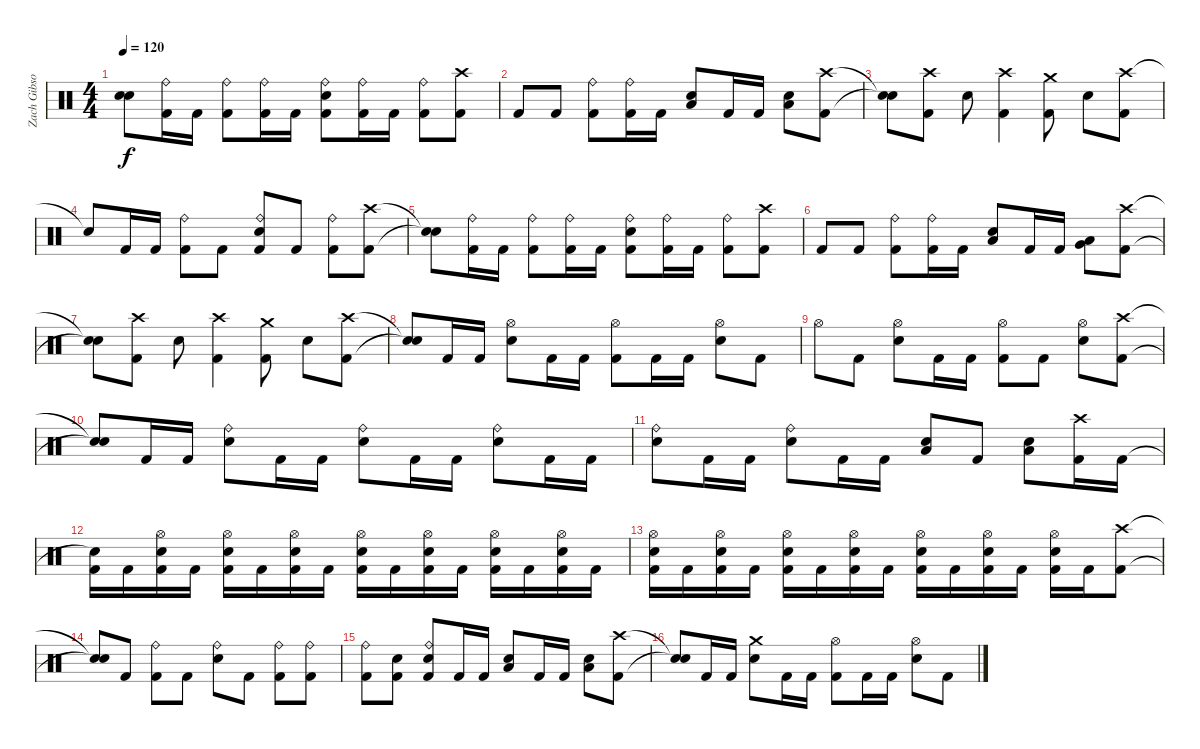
\track ("Zach Gibson (Drums)" "Zach Gibso") {instrument percussion}
\staff {score}
\articulation defaults
\ts (4 4)
\tempo 120
\clef neutral
\ks c
("Snare (hit)"{t} "Snare (hit)"{t}).8{dy f} ("Ride (bell)" "Kick (hit) 2").16 "Kick (hit) 2".16 ("Ride (bell)" "Kick (hit) 2").8 ("Ride (bell)" "Kick (hit) 2").16 "Kick (hit) 2".16 ("Snare (hit) 2" "Ride (bell)" "Kick (hit) 2").8 ("Ride (bell)" "Kick (hit) 2").16 "Kick (hit) 2".16 ("Ride (bell)" "Kick (hit) 2").8 ("Crash high (hit)" "Kick (hit) 2").8 |
"Kick (hit) 2".8 "Kick (hit) 2".8 ("Ride (bell)" "Kick (hit) 2").8 ("Ride (bell)" "Kick (hit) 2").16 "Kick (hit) 2".16 ("Low Floor Tom (hit)" "Snare (hit) 2").8 "Kick (hit) 2".16 "Kick (hit) 2".16 ("Low Floor Tom (hit)" "Snare (hit) 2").8 ("Crash high (hit)" "Kick (hit) 2").8 |
("Snare (hit)"{t} "Snare (hit)"{t}).8 ("Crash high (hit)" "Kick (hit) 2").8 "Snare (hit) 2".8 ("Crash high (hit)" "Kick (hit) 2").4 ("Crash medium (hit)" "Kick (hit) 2").8 "Snare (hit) 2".8 ("Crash high (hit)" "Kick (hit) 2").8 |
"Snare (hit)"{t}.8 "Kick (hit) 2".16 "Kick (hit) 2".16 ("Ride (bell)" "Kick (hit) 2").8 "Kick (hit) 2".8 ("Ride (bell)" "Kick (hit) 2" "Snare (hit) 2").8 "Kick (hit) 2".8 ("Ride (bell)" "Kick (hit) 2").8 ("Crash high (hit)" "Kick (hit) 2").8 |
("Snare (hit)"{t} "Snare (hit)"{t}).8 ("Ride (bell)" "Kick (hit) 2").16 "Kick (hit) 2".16 ("Ride (bell)" "Kick (hit) 2").8 ("Ride (bell)" "Kick (hit) 2").16 "Kick (hit) 2".16 ("Snare (hit) 2" "Ride (bell)" "Kick (hit) 2").8 ("Ride (bell)" "Kick (hit) 2").16 "Kick (hit) 2".16 ("Ride (bell)" "Kick (hit) 2").8 ("Crash high (hit)" "Kick (hit) 2").8 |
"Kick (hit) 2".8 "Kick (hit) 2".8 ("Ride (bell)" "Kick (hit) 2").8 ("Ride (bell)" "Kick (hit) 2").16 "Kick (hit) 2".16 ("Low Floor Tom (hit)" "Snare (hit) 2").8 "Kick (hit) 2".16 "Kick (hit) 2".16 ("Low Floor Tom (hit)" "Very Low Tom (hit)").8 ("Crash high (hit)" "Kick (hit) 2").8 |
("Snare (hit)"{t} "Snare (hit)"{t}).8 ("Crash high (hit)" "Kick (hit) 2").8 "Snare (hit) 2".8 ("Crash high (hit)" "Kick (hit) 2").4 ("Crash medium (hit)" "Kick (hit) 2").8 "Snare (hit) 2".8 ("Crash high (hit)" "Kick (hit) 2").8 |
("Snare (hit)"{t} "Snare (hit)"{t}).8 "Kick (hit) 2".16 "Kick (hit) 2".16 ("Hi-Hat (open)" "Snare (hit) 2").8 "Kick (hit) 2".16 "Kick (hit) 2".16 ("Kick (hit) 2" "Hi-Hat (open)").8 "Kick (hit) 2".16 "Kick (hit) 2".16 ("Hi-Hat (open)" "Snare (hit) 2").8 "Kick (hit) 2".8 |
"Hi-Hat (open)".8 "Kick (hit) 2".8 ("Hi-Hat (open)" "Snare (hit) 2").8 "Kick (hit) 2".16 "Kick (hit) 2".16 ("Kick (hit) 2" "Hi-Hat (open)").8 "Kick (hit) 2".8 ("Hi-Hat (open)" "Snare (hit) 2").8 ("Crash high (hit)" "Kick (hit) 2").8 |
("Snare (hit)"{t} "Snare (hit)"{t}).8 "Kick (hit) 2".16 "Kick (hit) 2".16 ("Ride (bell)" "Snare (hit) 2").8 "Kick (hit) 2".16 "Kick (hit) 2".16 ("Ride (bell)" "Snare (hit) 2").8 "Kick (hit) 2".16 "Kick (hit) 2".16 ("Ride (bell)" "Snare (hit) 2").8 "Kick (hit) 2".16 "Kick (hit) 2".16 |
("Ride (bell)" "Snare (hit) 2").8 "Kick (hit) 2".16 "Kick (hit) 2".16 ("Ride (bell)" "Snare (hit) 2").8 "Kick (hit) 2".16 "Kick (hit) 2".16 ("Low Floor Tom (hit)" "Snare (hit) 2").8 "Kick (hit) 2".8 ("Low Floor Tom (hit)" "Snare (hit) 2").8 ("Crash high (hit)" "Kick (hit) 2").16 "Kick (hit) 2".16 |
("Snare (hit)"{t} "Kick (hit) 2").16 "Kick (hit) 2".16 ("Hi-Hat (open)" "Snare (hit) 2" "Kick (hit) 2").16 "Kick (hit) 2".16 ("Hi-Hat (open)" "Snare (hit) 2" "Kick (hit) 2").16 "Kick (hit) 2".16 ("Hi-Hat (open)" "Snare (hit) 2" "Kick (hit) 2").16 "Kick (hit) 2".16 ("Hi-Hat (open)" "Snare (hit) 2" "Kick (hit) 2").16 "Kick (hit) 2".16 ("Hi-Hat (open)" "Snare (hit) 2" "Kick (hit) 2").16 "Kick (hit) 2".16 ("Hi-Hat (open)" "Snare (hit) 2" "Kick (hit) 2").16 "Kick (hit) 2".16 ("Hi-Hat (open)" "Snare (hit) 2" "Kick (hit) 2").16 "Kick (hit) 2".16 |
("Hi-Hat (open)" "Snare (hit) 2" "Kick (hit) 2").16 "Kick (hit) 2".16 ("Hi-Hat (open)" "Snare (hit) 2" "Kick (hit) 2").16 "Kick (hit) 2".16 ("Hi-Hat (open)" "Snare (hit) 2" "Kick (hit) 2").16 "Kick (hit) 2".16 ("Hi-Hat (open)" "Snare (hit) 2" "Kick (hit) 2").16 "Kick (hit) 2".16 ("Hi-Hat (open)" "Snare (hit) 2" "Kick (hit) 2").16 "Kick (hit) 2".16 ("Hi-Hat (open)" "Snare (hit) 2" "Kick (hit) 2").16 "Kick (hit) 2".16 ("Hi-Hat (open)" "Snare (hit) 2" "Kick (hit) 2").16 "Kick (hit) 2".16 ("Crash high (hit)" "Kick (hit) 2").8 |
("Snare (hit)"{t} "Snare (hit)"{t}).8 "Kick (hit) 2".8 ("Ride (bell)" "Kick (hit) 2").8 "Kick (hit) 2".8 ("Ride (bell)" "Snare (hit) 2").8 "Kick (hit) 2".8 ("Ride (bell)" "Kick (hit) 2").8 ("Ride (bell)" "Kick (hit) 2").8 |
("Ride (bell)" "Kick (hit) 2").8 ("Snare (hit) 2" "Kick (hit) 2").8 ("Snare (hit) 2" "Ride (bell)" "Kick (hit) 2").8 "Kick (hit) 2".16 "Kick (hit) 2".16 ("Low Floor Tom (hit)" "Snare (hit) 2").8 "Kick (hit) 2".16 "Kick (hit) 2".16 ("Low Floor Tom (hit)" "Snare (hit) 2").8 ("Crash high (hit)" "Kick (hit) 2").8 |
("Snare (hit)"{t} "Snare (hit)"{t}).8 "Kick (hit) 2".16 "Kick (hit) 2".16 ("Crash medium (hit)" "Snare (hit) 2").8 "Kick (hit) 2".16 "Kick (hit) 2".16 ("Kick (hit) 2" "Hi-Hat (open)").8 "Kick (hit) 2".16 "Kick (hit) 2".16 ("Hi-Hat (open)" "Snare (hit) 2").8 "Kick (hit) 2".8
